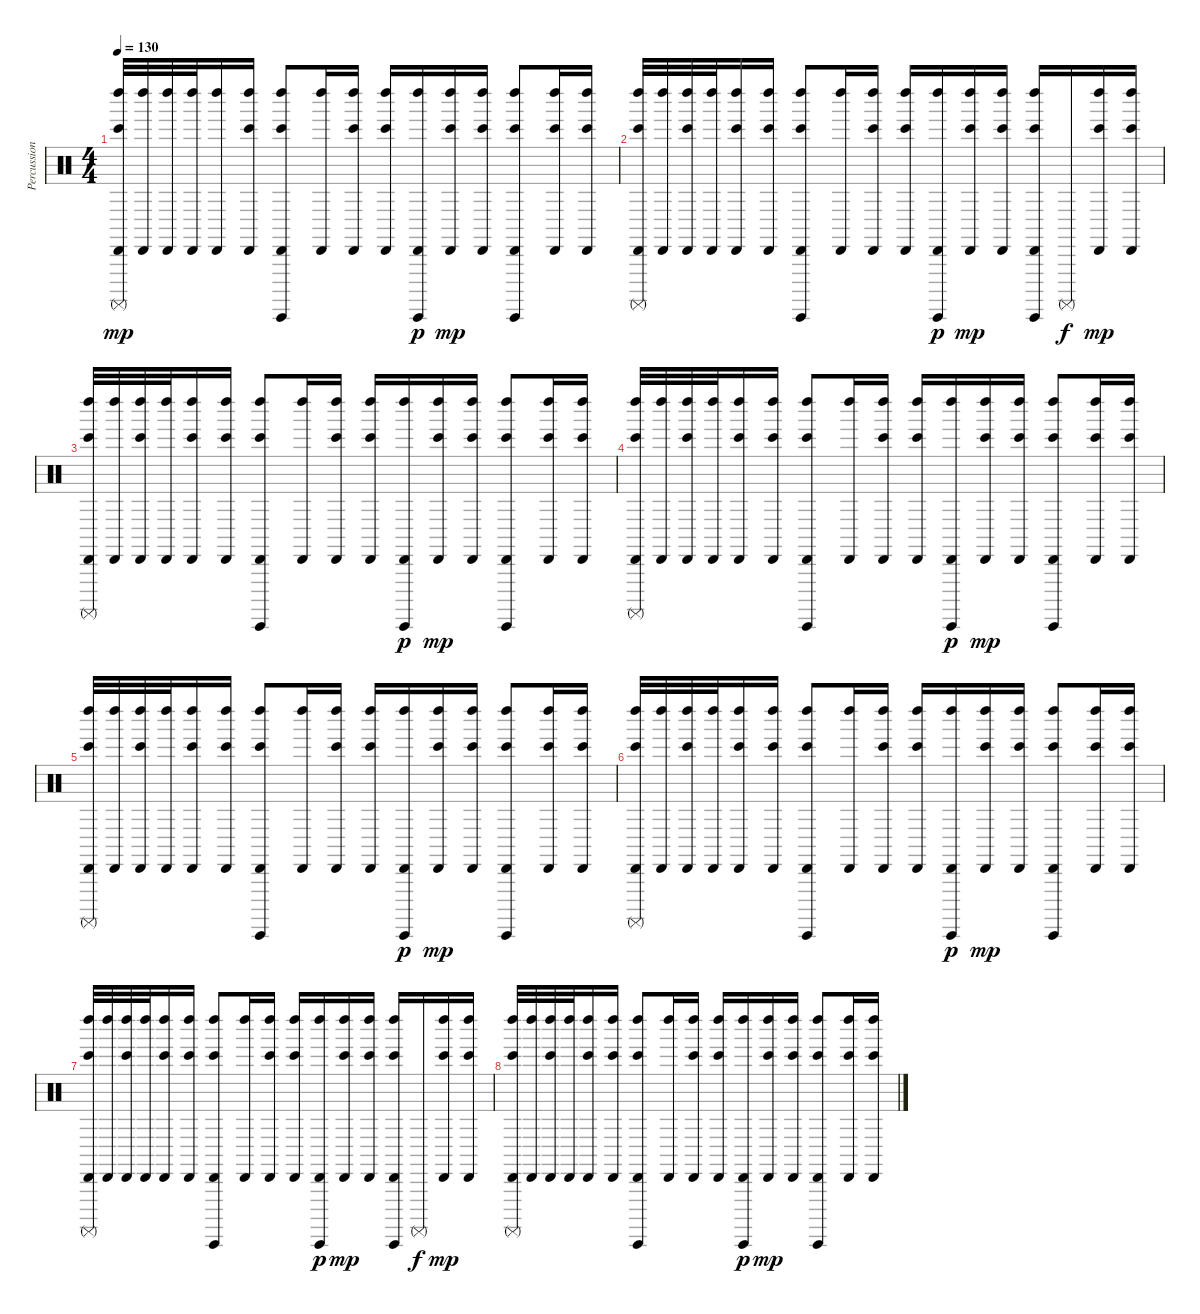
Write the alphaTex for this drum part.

\track ("Percussion" "Percussion") {instrument percussion}
\staff {score}
\articulation defaults
\ts (4 4)
\tempo 130
\clef neutral
\ks c
("Cabasa (hit)" "Left Maraca (hit)" "Surdo (mute)" "Bongo High (hit)").32{dy mp} ("Cabasa (hit)" "Left Maraca (hit)").32 ("Cabasa (hit)" "Left Maraca (hit)").32 ("Cabasa (hit)" "Left Maraca (hit)").32 ("Cabasa (hit)" "Left Maraca (hit)").16 ("Cabasa (hit)" "Left Maraca (hit)" "Bongo High (hit)").16 ("Cabasa (hit)" "Left Maraca (hit)" "Guiro (hit)" "Bongo High (hit)").8 ("Cabasa (hit)" "Left Maraca (hit)").16 ("Cabasa (hit)" "Left Maraca (hit)" "Bongo High (hit)").16 ("Cabasa (hit)" "Left Maraca (hit)" "Bongo High (hit)").16 ("Cabasa (hit)" "Left Maraca (hit)" "Guiro (hit)").16{dy p} ("Cabasa (hit)" "Left Maraca (hit)" "Bongo High (hit)").16{dy mp} ("Cabasa (hit)" "Left Maraca (hit)" "Bongo High (hit)").16 ("Cabasa (hit)" "Left Maraca (hit)" "Guiro (hit)" "Bongo High (hit)").8 ("Cabasa (hit)" "Left Maraca (hit)" "Bongo High (hit)").16 ("Cabasa (hit)" "Left Maraca (hit)" "Bongo High (hit)").16 |
("Cabasa (hit)" "Left Maraca (hit)" "Surdo (mute)" "Bongo High (hit)").32 ("Cabasa (hit)" "Left Maraca (hit)").32 ("Cabasa (hit)" "Left Maraca (hit)" "Bongo High (hit)").32 ("Cabasa (hit)" "Left Maraca (hit)").32 ("Cabasa (hit)" "Left Maraca (hit)" "Bongo High (hit)").16 ("Cabasa (hit)" "Left Maraca (hit)" "Bongo High (hit)").16 ("Cabasa (hit)" "Left Maraca (hit)" "Guiro (hit)" "Bongo High (hit)").8 ("Cabasa (hit)" "Left Maraca (hit)").16 ("Cabasa (hit)" "Left Maraca (hit)" "Bongo High (hit)").16 ("Cabasa (hit)" "Left Maraca (hit)" "Bongo High (hit)").16 ("Cabasa (hit)" "Left Maraca (hit)" "Guiro (hit)").16{dy p} ("Cabasa (hit)" "Left Maraca (hit)" "Bongo High (hit)").16{dy mp} ("Cabasa (hit)" "Left Maraca (hit)" "Bongo High (hit)").16 ("Cabasa (hit)" "Left Maraca (hit)" "Guiro (hit)" "Bongo High (hit)").16 "Surdo (mute)".16{dy f} ("Cabasa (hit)" "Left Maraca (hit)" "Bongo High (hit)").16{dy mp} ("Cabasa (hit)" "Left Maraca (hit)" "Bongo High (hit)").16 |
("Cabasa (hit)" "Left Maraca (hit)" "Surdo (mute)" "Bongo High (hit)").32 ("Cabasa (hit)" "Left Maraca (hit)").32 ("Cabasa (hit)" "Left Maraca (hit)" "Bongo High (hit)").32 ("Cabasa (hit)" "Left Maraca (hit)").32 ("Cabasa (hit)" "Left Maraca (hit)" "Bongo High (hit)").16 ("Cabasa (hit)" "Left Maraca (hit)" "Bongo High (hit)").16 ("Cabasa (hit)" "Left Maraca (hit)" "Guiro (hit)" "Bongo High (hit)").8 ("Cabasa (hit)" "Left Maraca (hit)").16 ("Cabasa (hit)" "Left Maraca (hit)" "Bongo High (hit)").16 ("Cabasa (hit)" "Left Maraca (hit)" "Bongo High (hit)").16 ("Cabasa (hit)" "Left Maraca (hit)" "Guiro (hit)").16{dy p} ("Cabasa (hit)" "Left Maraca (hit)" "Bongo High (hit)").16{dy mp} ("Cabasa (hit)" "Left Maraca (hit)" "Bongo High (hit)").16 ("Cabasa (hit)" "Left Maraca (hit)" "Guiro (hit)" "Bongo High (hit)").8 ("Cabasa (hit)" "Left Maraca (hit)" "Bongo High (hit)").16 ("Cabasa (hit)" "Left Maraca (hit)" "Bongo High (hit)").16 |
("Cabasa (hit)" "Left Maraca (hit)" "Surdo (mute)" "Bongo High (hit)").32 ("Cabasa (hit)" "Left Maraca (hit)").32 ("Cabasa (hit)" "Left Maraca (hit)" "Bongo High (hit)").32 ("Cabasa (hit)" "Left Maraca (hit)").32 ("Cabasa (hit)" "Left Maraca (hit)" "Bongo High (hit)").16 ("Cabasa (hit)" "Left Maraca (hit)" "Bongo High (hit)").16 ("Cabasa (hit)" "Left Maraca (hit)" "Guiro (hit)" "Bongo High (hit)").8 ("Cabasa (hit)" "Left Maraca (hit)").16 ("Cabasa (hit)" "Left Maraca (hit)" "Bongo High (hit)").16 ("Cabasa (hit)" "Left Maraca (hit)" "Bongo High (hit)").16 ("Cabasa (hit)" "Left Maraca (hit)" "Guiro (hit)").16{dy p} ("Cabasa (hit)" "Left Maraca (hit)" "Bongo High (hit)").16{dy mp} ("Cabasa (hit)" "Left Maraca (hit)" "Bongo High (hit)").16 ("Cabasa (hit)" "Left Maraca (hit)" "Guiro (hit)" "Bongo High (hit)").8 ("Cabasa (hit)" "Left Maraca (hit)" "Bongo High (hit)").16 ("Cabasa (hit)" "Left Maraca (hit)" "Bongo High (hit)").16 |
("Cabasa (hit)" "Left Maraca (hit)" "Surdo (mute)" "Bongo High (hit)").32 ("Cabasa (hit)" "Left Maraca (hit)").32 ("Cabasa (hit)" "Left Maraca (hit)" "Bongo High (hit)").32 ("Cabasa (hit)" "Left Maraca (hit)").32 ("Cabasa (hit)" "Left Maraca (hit)" "Bongo High (hit)").16 ("Cabasa (hit)" "Left Maraca (hit)" "Bongo High (hit)").16 ("Cabasa (hit)" "Left Maraca (hit)" "Guiro (hit)" "Bongo High (hit)").8 ("Cabasa (hit)" "Left Maraca (hit)").16 ("Cabasa (hit)" "Left Maraca (hit)" "Bongo High (hit)").16 ("Cabasa (hit)" "Left Maraca (hit)" "Bongo High (hit)").16 ("Cabasa (hit)" "Left Maraca (hit)" "Guiro (hit)").16{dy p} ("Cabasa (hit)" "Left Maraca (hit)" "Bongo High (hit)").16{dy mp} ("Cabasa (hit)" "Left Maraca (hit)" "Bongo High (hit)").16 ("Cabasa (hit)" "Left Maraca (hit)" "Guiro (hit)" "Bongo High (hit)").8 ("Cabasa (hit)" "Left Maraca (hit)" "Bongo High (hit)").16 ("Cabasa (hit)" "Left Maraca (hit)" "Bongo High (hit)").16 |
("Cabasa (hit)" "Left Maraca (hit)" "Surdo (mute)" "Bongo High (hit)").32 ("Cabasa (hit)" "Left Maraca (hit)").32 ("Cabasa (hit)" "Left Maraca (hit)" "Bongo High (hit)").32 ("Cabasa (hit)" "Left Maraca (hit)").32 ("Cabasa (hit)" "Left Maraca (hit)" "Bongo High (hit)").16 ("Cabasa (hit)" "Left Maraca (hit)" "Bongo High (hit)").16 ("Cabasa (hit)" "Left Maraca (hit)" "Guiro (hit)" "Bongo High (hit)").8 ("Cabasa (hit)" "Left Maraca (hit)").16 ("Cabasa (hit)" "Left Maraca (hit)" "Bongo High (hit)").16 ("Cabasa (hit)" "Left Maraca (hit)" "Bongo High (hit)").16 ("Cabasa (hit)" "Left Maraca (hit)" "Guiro (hit)").16{dy p} ("Cabasa (hit)" "Left Maraca (hit)" "Bongo High (hit)").16{dy mp} ("Cabasa (hit)" "Left Maraca (hit)" "Bongo High (hit)").16 ("Cabasa (hit)" "Left Maraca (hit)" "Guiro (hit)" "Bongo High (hit)").8 ("Cabasa (hit)" "Left Maraca (hit)" "Bongo High (hit)").16 ("Cabasa (hit)" "Left Maraca (hit)" "Bongo High (hit)").16 |
("Cabasa (hit)" "Left Maraca (hit)" "Surdo (mute)" "Bongo High (hit)").32 ("Cabasa (hit)" "Left Maraca (hit)").32 ("Cabasa (hit)" "Left Maraca (hit)" "Bongo High (hit)").32 ("Cabasa (hit)" "Left Maraca (hit)").32 ("Cabasa (hit)" "Left Maraca (hit)" "Bongo High (hit)").16 ("Cabasa (hit)" "Left Maraca (hit)" "Bongo High (hit)").16 ("Cabasa (hit)" "Left Maraca (hit)" "Guiro (hit)" "Bongo High (hit)").8 ("Cabasa (hit)" "Left Maraca (hit)").16 ("Cabasa (hit)" "Left Maraca (hit)" "Bongo High (hit)").16 ("Cabasa (hit)" "Left Maraca (hit)" "Bongo High (hit)").16 ("Cabasa (hit)" "Left Maraca (hit)" "Guiro (hit)").16{dy p} ("Cabasa (hit)" "Left Maraca (hit)" "Bongo High (hit)").16{dy mp} ("Cabasa (hit)" "Left Maraca (hit)" "Bongo High (hit)").16 ("Cabasa (hit)" "Left Maraca (hit)" "Guiro (hit)" "Bongo High (hit)").16 "Surdo (mute)".16{dy f} ("Cabasa (hit)" "Left Maraca (hit)" "Bongo High (hit)").16{dy mp} ("Cabasa (hit)" "Left Maraca (hit)" "Bongo High (hit)").16 |
("Cabasa (hit)" "Left Maraca (hit)" "Surdo (mute)" "Bongo High (hit)").32 ("Cabasa (hit)" "Left Maraca (hit)").32 ("Cabasa (hit)" "Left Maraca (hit)" "Bongo High (hit)").32 ("Cabasa (hit)" "Left Maraca (hit)").32 ("Cabasa (hit)" "Left Maraca (hit)" "Bongo High (hit)").16 ("Cabasa (hit)" "Left Maraca (hit)" "Bongo High (hit)").16 ("Cabasa (hit)" "Left Maraca (hit)" "Guiro (hit)" "Bongo High (hit)").8 ("Cabasa (hit)" "Left Maraca (hit)").16 ("Cabasa (hit)" "Left Maraca (hit)" "Bongo High (hit)").16 ("Cabasa (hit)" "Left Maraca (hit)" "Bongo High (hit)").16 ("Cabasa (hit)" "Left Maraca (hit)" "Guiro (hit)").16{dy p} ("Cabasa (hit)" "Left Maraca (hit)" "Bongo High (hit)").16{dy mp} ("Cabasa (hit)" "Left Maraca (hit)" "Bongo High (hit)").16 ("Cabasa (hit)" "Left Maraca (hit)" "Guiro (hit)" "Bongo High (hit)").8 ("Cabasa (hit)" "Left Maraca (hit)" "Bongo High (hit)").16 ("Cabasa (hit)" "Left Maraca (hit)" "Bongo High (hit)").16
